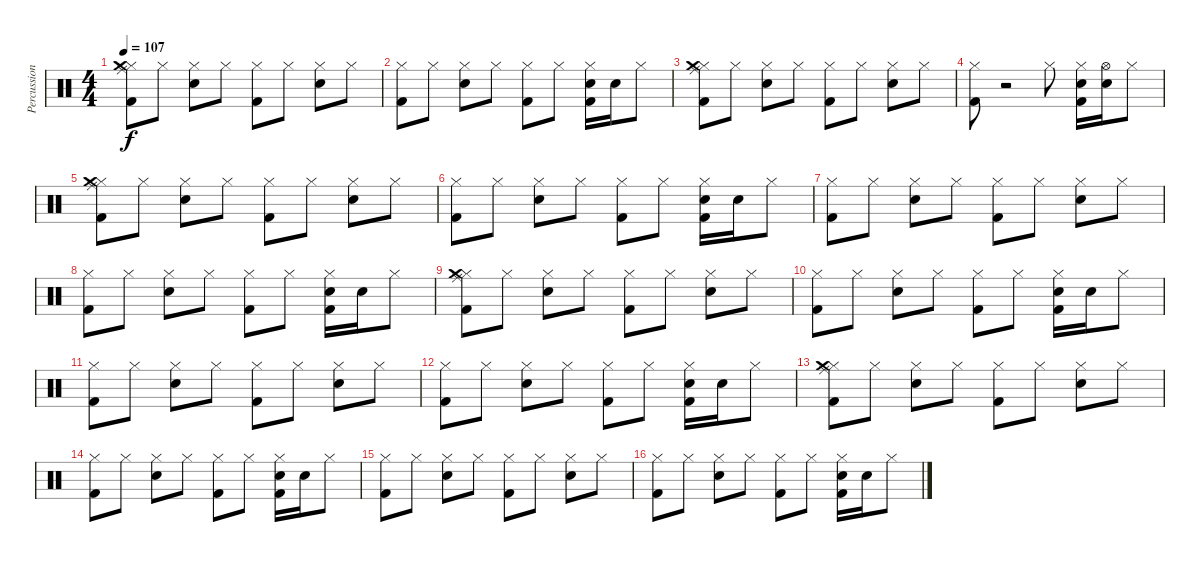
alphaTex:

\track ("Percussion" "Percussion") {instrument percussion}
\staff {score}
\articulation defaults
\ts (4 4)
\tempo 107
\clef neutral
\ks c
("Hi-Hat (closed)" "Ride (middle)" "Crash medium (hit)" "Kick (hit) 2").8{dy f} "Hi-Hat (closed)".8 ("Hi-Hat (closed)" "Snare (hit) 2").8 "Hi-Hat (closed)".8 ("Hi-Hat (closed)" "Kick (hit) 2").8 "Hi-Hat (closed)".8 ("Hi-Hat (closed)" "Snare (hit) 2").8 "Hi-Hat (closed)".8 |
("Hi-Hat (closed)" "Kick (hit) 2").8 "Hi-Hat (closed)".8 ("Hi-Hat (closed)" "Snare (hit) 2").8 "Hi-Hat (closed)".8 ("Hi-Hat (closed)" "Kick (hit) 2").8 "Hi-Hat (closed)".8 ("Hi-Hat (closed)" "Kick (hit) 2" "Snare (hit) 2").16 "Snare (hit) 2".16 "Hi-Hat (closed)".8 |
("Hi-Hat (closed)" "Ride (middle)" "Crash medium (hit)" "Kick (hit) 2").8 "Hi-Hat (closed)".8 ("Hi-Hat (closed)" "Snare (hit) 2").8 "Hi-Hat (closed)".8 ("Hi-Hat (closed)" "Kick (hit) 2").8 "Hi-Hat (closed)".8 ("Hi-Hat (closed)" "Snare (hit) 2").8 "Hi-Hat (closed)".8 |
("Hi-Hat (closed)" "Kick (hit) 2").8 r.2 "Hi-Hat (closed)".8 ("Hi-Hat (closed)" "Kick (hit) 2" "Snare (hit) 2").16 ("Hi-Hat (open)" "Snare (hit) 2").16 "Hi-Hat (closed)".8 |
("Hi-Hat (closed)" "Ride (middle)" "Crash medium (hit)" "Kick (hit) 2").8 "Hi-Hat (closed)".8 ("Hi-Hat (closed)" "Snare (hit) 2").8 "Hi-Hat (closed)".8 ("Hi-Hat (closed)" "Kick (hit) 2").8 "Hi-Hat (closed)".8 ("Hi-Hat (closed)" "Snare (hit) 2").8 "Hi-Hat (closed)".8 |
("Hi-Hat (closed)" "Kick (hit) 2").8 "Hi-Hat (closed)".8 ("Hi-Hat (closed)" "Snare (hit) 2").8 "Hi-Hat (closed)".8 ("Hi-Hat (closed)" "Kick (hit) 2").8 "Hi-Hat (closed)".8 ("Hi-Hat (closed)" "Kick (hit) 2" "Snare (hit) 2").16 "Snare (hit) 2".16 "Hi-Hat (closed)".8 |
("Hi-Hat (closed)" "Kick (hit) 2").8 "Hi-Hat (closed)".8 ("Hi-Hat (closed)" "Snare (hit) 2").8 "Hi-Hat (closed)".8 ("Hi-Hat (closed)" "Kick (hit) 2").8 "Hi-Hat (closed)".8 ("Hi-Hat (closed)" "Snare (hit) 2").8 "Hi-Hat (closed)".8 |
("Hi-Hat (closed)" "Kick (hit) 2").8 "Hi-Hat (closed)".8 ("Hi-Hat (closed)" "Snare (hit) 2").8 "Hi-Hat (closed)".8 ("Hi-Hat (closed)" "Kick (hit) 2").8 "Hi-Hat (closed)".8 ("Hi-Hat (closed)" "Kick (hit) 2" "Snare (hit) 2").16 "Snare (hit) 2".16 "Hi-Hat (closed)".8 |
("Hi-Hat (closed)" "Ride (middle)" "Crash medium (hit)" "Kick (hit) 2").8 "Hi-Hat (closed)".8 ("Hi-Hat (closed)" "Snare (hit) 2").8 "Hi-Hat (closed)".8 ("Hi-Hat (closed)" "Kick (hit) 2").8 "Hi-Hat (closed)".8 ("Hi-Hat (closed)" "Snare (hit) 2").8 "Hi-Hat (closed)".8 |
("Hi-Hat (closed)" "Kick (hit) 2").8 "Hi-Hat (closed)".8 ("Hi-Hat (closed)" "Snare (hit) 2").8 "Hi-Hat (closed)".8 ("Hi-Hat (closed)" "Kick (hit) 2").8 "Hi-Hat (closed)".8 ("Hi-Hat (closed)" "Kick (hit) 2" "Snare (hit) 2").16 "Snare (hit) 2".16 "Hi-Hat (closed)".8 |
("Hi-Hat (closed)" "Kick (hit) 2").8 "Hi-Hat (closed)".8 ("Hi-Hat (closed)" "Snare (hit) 2").8 "Hi-Hat (closed)".8 ("Hi-Hat (closed)" "Kick (hit) 2").8 "Hi-Hat (closed)".8 ("Hi-Hat (closed)" "Snare (hit) 2").8 "Hi-Hat (closed)".8 |
("Hi-Hat (closed)" "Kick (hit) 2").8 "Hi-Hat (closed)".8 ("Hi-Hat (closed)" "Snare (hit) 2").8 "Hi-Hat (closed)".8 ("Hi-Hat (closed)" "Kick (hit) 2").8 "Hi-Hat (closed)".8 ("Hi-Hat (closed)" "Kick (hit) 2" "Snare (hit) 2").16 "Snare (hit) 2".16 "Hi-Hat (closed)".8 |
("Hi-Hat (closed)" "Ride (middle)" "Crash medium (hit)" "Kick (hit) 2").8 "Hi-Hat (closed)".8 ("Hi-Hat (closed)" "Snare (hit) 2").8 "Hi-Hat (closed)".8 ("Hi-Hat (closed)" "Kick (hit) 2").8 "Hi-Hat (closed)".8 ("Hi-Hat (closed)" "Snare (hit) 2").8 "Hi-Hat (closed)".8 |
("Hi-Hat (closed)" "Kick (hit) 2").8 "Hi-Hat (closed)".8 ("Hi-Hat (closed)" "Snare (hit) 2").8 "Hi-Hat (closed)".8 ("Hi-Hat (closed)" "Kick (hit) 2").8 "Hi-Hat (closed)".8 ("Hi-Hat (closed)" "Kick (hit) 2" "Snare (hit) 2").16 "Snare (hit) 2".16 "Hi-Hat (closed)".8 |
("Hi-Hat (closed)" "Kick (hit) 2").8 "Hi-Hat (closed)".8 ("Hi-Hat (closed)" "Snare (hit) 2").8 "Hi-Hat (closed)".8 ("Hi-Hat (closed)" "Kick (hit) 2").8 "Hi-Hat (closed)".8 ("Hi-Hat (closed)" "Snare (hit) 2").8 "Hi-Hat (closed)".8 |
("Hi-Hat (closed)" "Kick (hit) 2").8 "Hi-Hat (closed)".8 ("Hi-Hat (closed)" "Snare (hit) 2").8 "Hi-Hat (closed)".8 ("Hi-Hat (closed)" "Kick (hit) 2").8 "Hi-Hat (closed)".8 ("Hi-Hat (closed)" "Kick (hit) 2" "Snare (hit) 2").16 "Snare (hit) 2".16 "Hi-Hat (closed)".8
